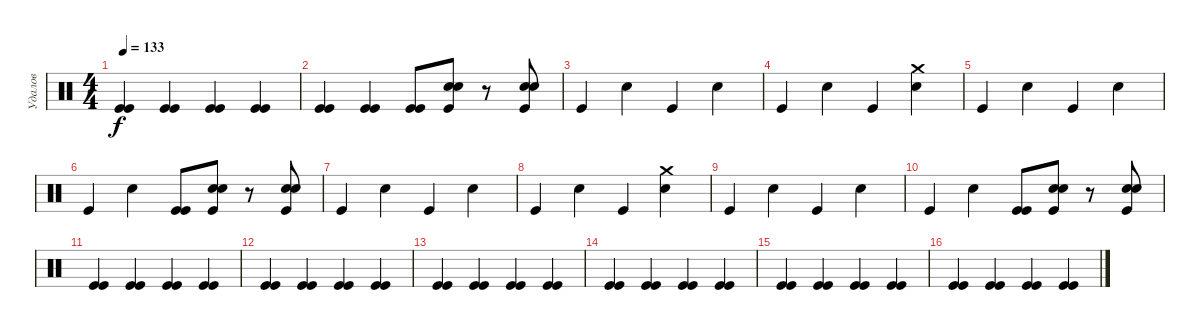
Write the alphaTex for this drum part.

\track ("Удалов" "Удалов") {instrument percussion}
\staff {score}
\articulation defaults
\ts (4 4)
\tempo 133
\clef neutral
\ks c
("Kick (hit)" "Kick (hit)").4{dy f} ("Kick (hit)" "Kick (hit)").4 ("Kick (hit)" "Kick (hit)").4 ("Kick (hit)" "Kick (hit)").4 |
("Kick (hit)" "Kick (hit)").4 ("Kick (hit)" "Kick (hit)").4 ("Kick (hit)" "Kick (hit)").8 ("Electric Snare (hit)" "Electric Snare (hit)" "Kick (hit)").8 r.8 ("Electric Snare (hit)" "Electric Snare (hit)" "Kick (hit)").8 |
"Kick (hit)".4 "Electric Snare (hit)".4 "Kick (hit)".4 "Electric Snare (hit)".4 |
"Kick (hit)".4 "Electric Snare (hit)".4 "Kick (hit)".4 ("Crash medium (hit)" "Electric Snare (hit)").4 |
"Kick (hit)".4 "Electric Snare (hit)".4 "Kick (hit)".4 "Electric Snare (hit)".4 |
"Kick (hit)".4 "Electric Snare (hit)".4 ("Kick (hit)" "Kick (hit)").8 ("Electric Snare (hit)" "Electric Snare (hit)" "Kick (hit)").8 r.8 ("Electric Snare (hit)" "Electric Snare (hit)" "Kick (hit)").8 |
"Kick (hit)".4 "Electric Snare (hit)".4 "Kick (hit)".4 "Electric Snare (hit)".4 |
"Kick (hit)".4 "Electric Snare (hit)".4 "Kick (hit)".4 ("Crash medium (hit)" "Electric Snare (hit)").4 |
"Kick (hit)".4 "Electric Snare (hit)".4 "Kick (hit)".4 "Electric Snare (hit)".4 |
"Kick (hit)".4 "Electric Snare (hit)".4 ("Kick (hit)" "Kick (hit)").8 ("Electric Snare (hit)" "Electric Snare (hit)" "Kick (hit)").8 r.8 ("Electric Snare (hit)" "Electric Snare (hit)" "Kick (hit)").8 |
("Kick (hit)" "Kick (hit)").4 ("Kick (hit)" "Kick (hit)").4 ("Kick (hit)" "Kick (hit)").4 ("Kick (hit)" "Kick (hit)").4 |
("Kick (hit)" "Kick (hit)").4 ("Kick (hit)" "Kick (hit)").4 ("Kick (hit)" "Kick (hit)").4 ("Kick (hit)" "Kick (hit)").4 |
("Kick (hit)" "Kick (hit)").4 ("Kick (hit)" "Kick (hit)").4 ("Kick (hit)" "Kick (hit)").4 ("Kick (hit)" "Kick (hit)").4 |
("Kick (hit)" "Kick (hit)").4 ("Kick (hit)" "Kick (hit)").4 ("Kick (hit)" "Kick (hit)").4 ("Kick (hit)" "Kick (hit)").4 |
("Kick (hit)" "Kick (hit)").4 ("Kick (hit)" "Kick (hit)").4 ("Kick (hit)" "Kick (hit)").4 ("Kick (hit)" "Kick (hit)").4 |
("Kick (hit)" "Kick (hit)").4 ("Kick (hit)" "Kick (hit)").4 ("Kick (hit)" "Kick (hit)").4 ("Kick (hit)" "Kick (hit)").4
